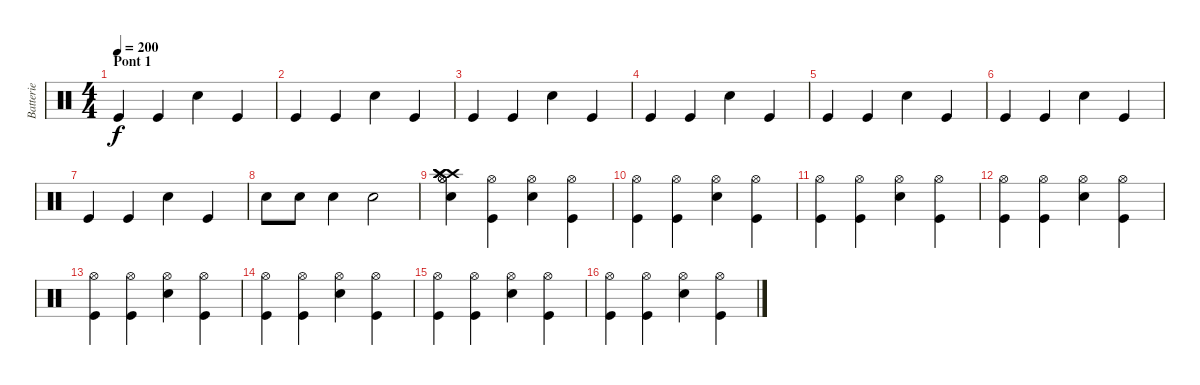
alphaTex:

\track ("Batterie" "Batterie") {instrument percussion}
\staff {score}
\articulation defaults
\ts (4 4)
\section ("" "Pont 1")
\tempo 200
\clef neutral
\ks c "Kick (hit)".4{dy f} "Kick (hit)".4 "Electric Snare (hit)".4 "Kick (hit)".4
|
"Kick (hit)".4 "Kick (hit)".4 "Electric Snare (hit)".4 "Kick (hit)".4 |
"Kick (hit)".4 "Kick (hit)".4 "Electric Snare (hit)".4 "Kick (hit)".4 |
"Kick (hit)".4 "Kick (hit)".4 "Electric Snare (hit)".4 "Kick (hit)".4 |
"Kick (hit)".4 "Kick (hit)".4 "Electric Snare (hit)".4 "Kick (hit)".4 |
"Kick (hit)".4 "Kick (hit)".4 "Electric Snare (hit)".4 "Kick (hit)".4 |
"Kick (hit)".4 "Kick (hit)".4 "Electric Snare (hit)".4 "Kick (hit)".4 |
"Electric Snare (hit)".8 "Electric Snare (hit)".8 "Electric Snare (hit)".4 "Electric Snare (hit)".2 |
("Electric Snare (hit)" "Crash high (hit)" "Crash high (hit)" "Crash high (hit)" "Hi-Hat (open)" "Hi-Hat (open)").4 ("Kick (hit)" "Hi-Hat (open)").4 ("Electric Snare (hit)" "Hi-Hat (open)").4 ("Kick (hit)" "Hi-Hat (open)").4 |
("Kick (hit)" "Hi-Hat (open)").4 ("Kick (hit)" "Hi-Hat (open)").4 ("Electric Snare (hit)" "Hi-Hat (open)").4 ("Kick (hit)" "Hi-Hat (open)").4 |
("Kick (hit)" "Hi-Hat (open)").4 ("Kick (hit)" "Hi-Hat (open)").4 ("Electric Snare (hit)" "Hi-Hat (open)").4 ("Kick (hit)" "Hi-Hat (open)").4 |
("Kick (hit)" "Hi-Hat (open)").4 ("Kick (hit)" "Hi-Hat (open)").4 ("Electric Snare (hit)" "Hi-Hat (open)").4 ("Kick (hit)" "Hi-Hat (open)").4 |
("Kick (hit)" "Hi-Hat (open)").4 ("Kick (hit)" "Hi-Hat (open)").4 ("Electric Snare (hit)" "Hi-Hat (open)").4 ("Kick (hit)" "Hi-Hat (open)").4 |
("Kick (hit)" "Hi-Hat (open)").4 ("Kick (hit)" "Hi-Hat (open)").4 ("Electric Snare (hit)" "Hi-Hat (open)").4 ("Kick (hit)" "Hi-Hat (open)").4 |
("Kick (hit)" "Hi-Hat (open)").4 ("Kick (hit)" "Hi-Hat (open)").4 ("Electric Snare (hit)" "Hi-Hat (open)").4 ("Kick (hit)" "Hi-Hat (open)").4 |
("Kick (hit)" "Hi-Hat (open)").4 ("Kick (hit)" "Hi-Hat (open)").4 ("Electric Snare (hit)" "Hi-Hat (open)").4 ("Kick (hit)" "Hi-Hat (open)").4
